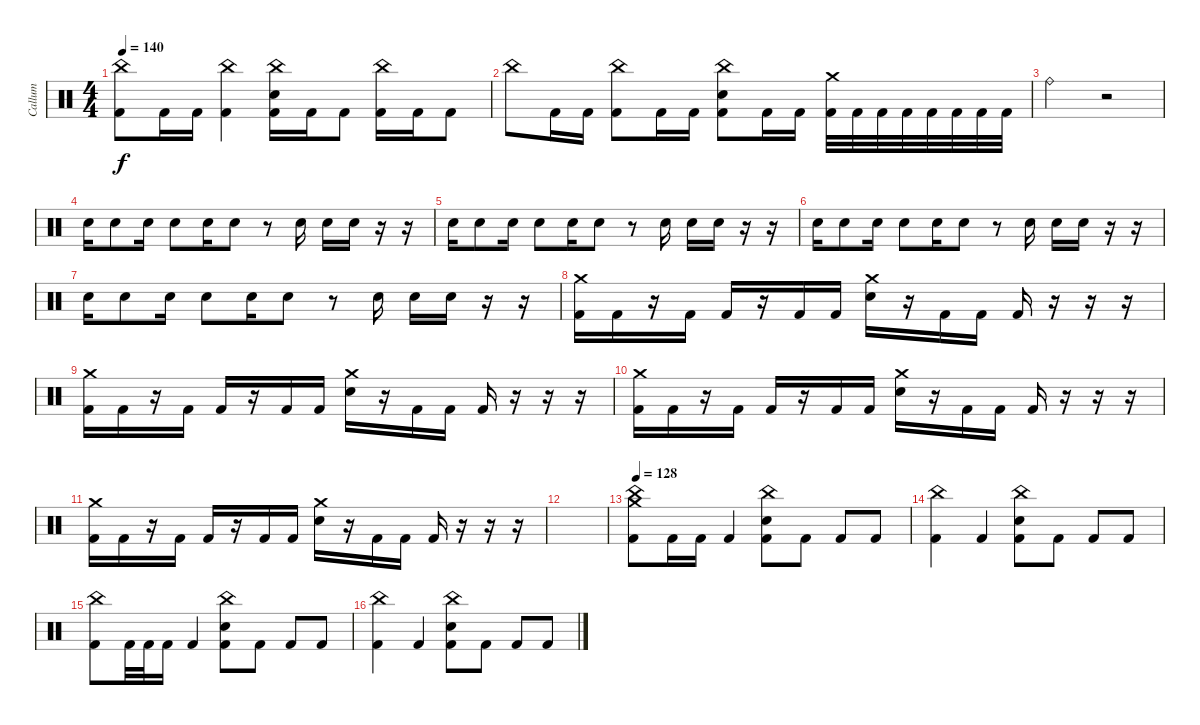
\track ("Callum" "Callum") {instrument percussion}
\staff {score}
\articulation defaults
\ts (4 4)
\tempo 140
\clef neutral
\ks c
("China (hit)" "Kick (hit) 2").8{dy f} "Kick (hit) 2".16 "Kick (hit) 2".16 ("China (hit)" "Kick (hit) 2").4 ("China (hit)" "Electric Snare (hit)" "Kick (hit) 2").16 "Kick (hit) 2".16 "Kick (hit) 2".8 ("China (hit)" "Kick (hit) 2").16 "Kick (hit) 2".16 "Kick (hit) 2".8 |
"China (hit)".8 "Kick (hit) 2".16 "Kick (hit) 2".16 ("China (hit)" "Kick (hit) 2").8 "Kick (hit) 2".16 "Kick (hit) 2".16 ("China (hit)" "Electric Snare (hit)" "Kick (hit) 2").8 "Kick (hit) 2".16 "Kick (hit) 2".16 ("Crash medium (hit)" "Kick (hit) 2").32 "Kick (hit) 2".32 "Kick (hit) 2".32 "Kick (hit) 2".32 "Kick (hit) 2".32 "Kick (hit) 2".32 "Kick (hit) 2".32 "Kick (hit) 2".32 |
"Ride (bell)".2 r.2 |
"Electric Snare (hit)".16 "Electric Snare (hit)".8 "Electric Snare (hit)".16 "Electric Snare (hit)".8 "Electric Snare (hit)".16 "Electric Snare (hit)".8 r.8 "Electric Snare (hit)".16 "Electric Snare (hit)".16 "Electric Snare (hit)".16 r.16 r.16 |
"Electric Snare (hit)".16 "Electric Snare (hit)".8 "Electric Snare (hit)".16 "Electric Snare (hit)".8 "Electric Snare (hit)".16 "Electric Snare (hit)".8 r.8 "Electric Snare (hit)".16 "Electric Snare (hit)".16 "Electric Snare (hit)".16 r.16 r.16 |
"Electric Snare (hit)".16 "Electric Snare (hit)".8 "Electric Snare (hit)".16 "Electric Snare (hit)".8 "Electric Snare (hit)".16 "Electric Snare (hit)".8 r.8 "Electric Snare (hit)".16 "Electric Snare (hit)".16 "Electric Snare (hit)".16 r.16 r.16 |
"Electric Snare (hit)".16 "Electric Snare (hit)".8 "Electric Snare (hit)".16 "Electric Snare (hit)".8 "Electric Snare (hit)".16 "Electric Snare (hit)".8 r.8 "Electric Snare (hit)".16 "Electric Snare (hit)".16 "Electric Snare (hit)".16 r.16 r.16 |
("Crash medium (hit)" "Kick (hit) 2").16 "Kick (hit) 2".16 r.16 "Kick (hit) 2".16 "Kick (hit) 2".16 r.16 "Kick (hit) 2".16 "Kick (hit) 2".16 ("Crash medium (hit)" "Electric Snare (hit)").16 r.16 "Kick (hit) 2".16 "Kick (hit) 2".16 "Kick (hit) 2".16 r.16 r.16 r.16 |
("Crash medium (hit)" "Kick (hit) 2").16 "Kick (hit) 2".16 r.16 "Kick (hit) 2".16 "Kick (hit) 2".16 r.16 "Kick (hit) 2".16 "Kick (hit) 2".16 ("Crash medium (hit)" "Electric Snare (hit)").16 r.16 "Kick (hit) 2".16 "Kick (hit) 2".16 "Kick (hit) 2".16 r.16 r.16 r.16 |
("Crash medium (hit)" "Kick (hit) 2").16 "Kick (hit) 2".16 r.16 "Kick (hit) 2".16 "Kick (hit) 2".16 r.16 "Kick (hit) 2".16 "Kick (hit) 2".16 ("Crash medium (hit)" "Electric Snare (hit)").16 r.16 "Kick (hit) 2".16 "Kick (hit) 2".16 "Kick (hit) 2".16 r.16 r.16 r.16 |
("Crash medium (hit)" "Kick (hit) 2").16 "Kick (hit) 2".16 r.16 "Kick (hit) 2".16 "Kick (hit) 2".16 r.16 "Kick (hit) 2".16 "Kick (hit) 2".16 ("Crash medium (hit)" "Electric Snare (hit)").16 r.16 "Kick (hit) 2".16 "Kick (hit) 2".16 "Kick (hit) 2".16 r.16 r.16 r.16 |
|
\tempo 128
("Crash medium (hit)" "China (hit)" "Kick (hit) 2").8 "Kick (hit) 2".16 "Kick (hit) 2".16 "Kick (hit) 2".4 ("China (hit)" "Electric Snare (hit)" "Kick (hit) 2").8 "Kick (hit) 2".8 "Kick (hit) 2".8 "Kick (hit) 2".8 |
("China (hit)" "Kick (hit) 2").4 "Kick (hit) 2".4 ("China (hit)" "Electric Snare (hit)" "Kick (hit) 2").8 "Kick (hit) 2".8 "Kick (hit) 2".8 "Kick (hit) 2".8 |
("China (hit)" "Kick (hit) 2").8 "Kick (hit) 2".32 "Kick (hit) 2".32 "Kick (hit) 2".16 "Kick (hit) 2".4 ("China (hit)" "Electric Snare (hit)" "Kick (hit) 2").8 "Kick (hit) 2".8 "Kick (hit) 2".8 "Kick (hit) 2".8 |
("China (hit)" "Kick (hit) 2").4 "Kick (hit) 2".4 ("China (hit)" "Electric Snare (hit)" "Kick (hit) 2").8 "Kick (hit) 2".8 "Kick (hit) 2".8 "Kick (hit) 2".8
